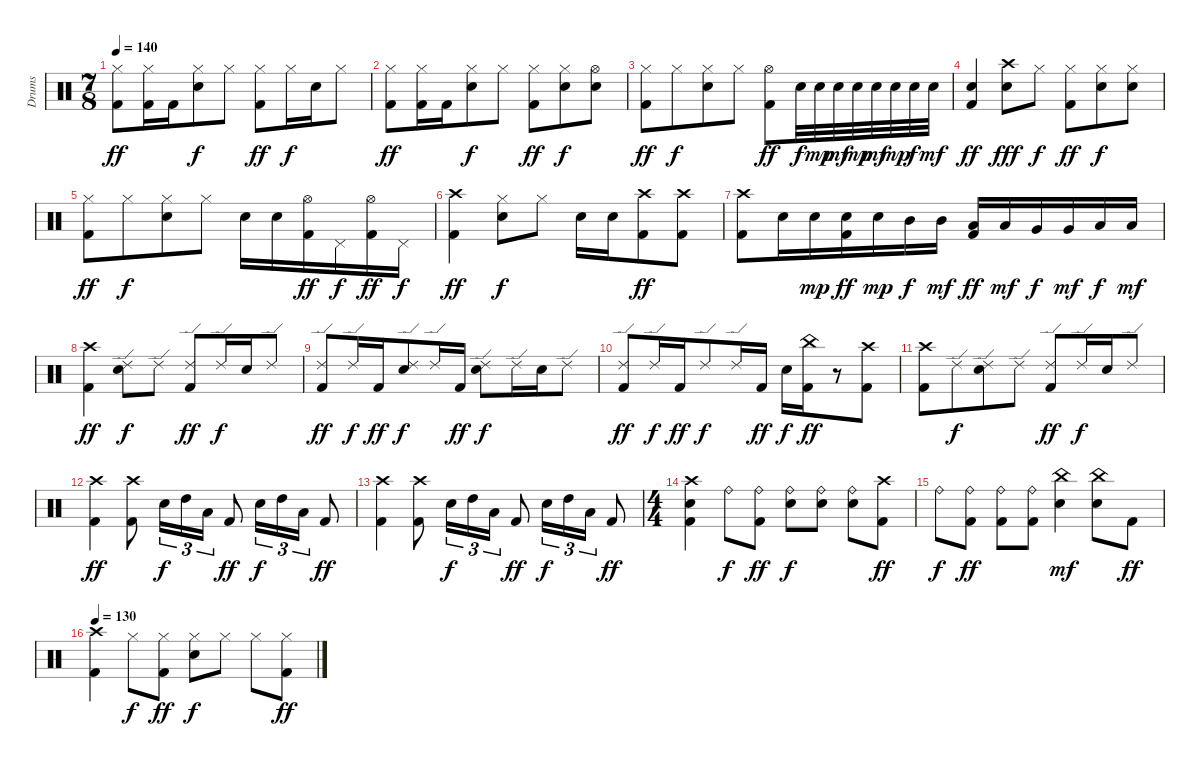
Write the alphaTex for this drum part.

\track ("Drums" "Drums") {instrument percussion}
\staff {score}
\articulation defaults
\ts (7 8)
\tempo 140
\clef neutral
\ks c
("Hi-Hat (closed)" "Kick (hit) 2").8{dy ff} ("Hi-Hat (closed)" "Kick (hit) 2").16 "Kick (hit) 2".16 ("Hi-Hat (closed)" "Snare (hit) 2").8{dy f} "Hi-Hat (closed)".8 ("Hi-Hat (closed)" "Kick (hit) 2").8{dy ff} "Hi-Hat (closed)".16{dy f} "Snare (hit) 2".16 "Hi-Hat (closed)".8 |
("Hi-Hat (closed)" "Kick (hit) 2").8{dy ff} ("Hi-Hat (closed)" "Kick (hit) 2").16 "Kick (hit) 2".16 ("Hi-Hat (closed)" "Snare (hit) 2").8{dy f} "Hi-Hat (closed)".8 ("Hi-Hat (closed)" "Kick (hit) 2").8{dy ff} ("Hi-Hat (closed)" "Snare (hit) 2").8{dy f} ("Hi-Hat (open)" "Snare (hit) 2").8 |
("Hi-Hat (closed)" "Kick (hit) 2").8{dy ff} "Hi-Hat (closed)".8{dy f} ("Hi-Hat (closed)" "Snare (hit) 2").8 "Hi-Hat (closed)".8 ("Hi-Hat (open)" "Kick (hit) 2").8{dy ff} "Snare (hit) 2".32{dy f} "Snare (hit) 2".32{dy mp} "Snare (hit) 2".32{dy mf} "Snare (hit) 2".32{dy mp} "Snare (hit) 2".32{dy mf} "Snare (hit) 2".32{dy mp} "Snare (hit) 2".32{dy f} "Snare (hit) 2".32{dy mf} |
("Snare (hit) 2" "Kick (hit) 2").4{dy ff} ("Crash high (hit)" "Snare (hit) 2").8{dy fff} "Hi-Hat (closed)".8{dy f} ("Hi-Hat (closed)" "Kick (hit) 2").8{dy ff} ("Hi-Hat (closed)" "Snare (hit) 2").8{dy f} ("Hi-Hat (closed)" "Snare (hit) 2").8 |
("Hi-Hat (closed)" "Kick (hit) 2").8{dy ff} "Hi-Hat (closed)".8{dy f} ("Hi-Hat (closed)" "Snare (hit) 2").8 "Hi-Hat (closed)".8 "Snare (hit) 2".16 "Snare (hit) 2".16 ("Hi-Hat (open)" "Kick (hit) 2").16{dy ff} "Pedal Hi-Hat (hit)".16{dy f} ("Hi-Hat (open)" "Kick (hit) 2").16{dy ff} "Pedal Hi-Hat (hit)".16{dy f} |
("Crash high (hit)" "Kick (hit) 2").4{dy ff} ("Hi-Hat (closed)" "Snare (hit) 2").8{dy f} "Hi-Hat (closed)".8 "Snare (hit) 2".16 "Snare (hit) 2".16 ("Crash high (hit)" "Kick (hit) 2").8{dy ff} ("Crash high (hit)" "Kick (hit) 2").8 |
("Crash high (hit)" "Kick (hit) 2").8 "Snare (hit) 2".16 "Snare (hit) 2".16{dy mp} ("Snare (hit) 2" "Kick (hit) 2").16{dy ff} "Snare (hit) 2".16{dy mp} "Mid Tom (hit)".16{dy f} "Mid Tom (hit)".16{dy mf} ("Low Tom (hit)" "Kick (hit) 2").16{dy ff} "Low Tom (hit)".16{dy mf} "Very Low Tom (hit)".16{dy f} "Very Low Tom (hit)".16{dy mf} "Low Floor Tom (hit)".16{dy f} "Low Floor Tom (hit)".16{dy mf} |
("Crash high (hit)" "Kick (hit) 2").4{dy ff} ("Ride (edge) 2" "Snare (hit) 2").8{dy f} "Ride (edge) 2".8 ("Ride (edge) 2" "Kick (hit) 2").8{dy ff} "Ride (edge) 2".16{dy f} "Snare (hit) 2".16 "Ride (edge) 2".8 |
("Ride (edge) 2" "Kick (hit) 2").8{dy ff} "Ride (edge) 2".16{dy f} "Kick (hit) 2".16{dy ff} ("Ride (edge) 2" "Snare (hit) 2").8{dy f} "Ride (edge) 2".16 "Kick (hit) 2".16{dy ff} ("Ride (edge) 2" "Snare (hit) 2").8{dy f} "Ride (edge) 2".16 "Snare (hit) 2".16 "Ride (edge) 2".8 |
("Ride (edge) 2" "Kick (hit) 2").8{dy ff} "Ride (edge) 2".16{dy f} "Kick (hit) 2".16{dy ff} "Ride (edge) 2".8{dy f} "Ride (edge) 2".16 "Kick (hit) 2".16{dy ff} "Snare (hit) 2".16{dy f} ("China (hit)" "Kick (hit) 2").16{dy ff} r.8 ("Crash high (hit)" "Kick (hit) 2").8 |
("Crash high (hit)" "Kick (hit) 2").8 "Ride (edge) 2".8{dy f} ("Ride (edge) 2" "Snare (hit) 2").8 "Ride (edge) 2".8 ("Ride (edge) 2" "Kick (hit) 2").8{dy ff} "Ride (edge) 2".16{dy f} "Snare (hit) 2".16 "Ride (edge) 2".8 |
("Crash high (hit)" "Kick (hit) 2").4{dy ff} ("Crash high (hit)" "Kick (hit) 2").8 "Snare (hit) 2".16{tu (3 2) dy f} "High Tom (hit)".16{tu (3 2)} "Low Floor Tom (hit)".16{tu (3 2)} "Kick (hit) 2".8{dy ff} "Snare (hit) 2".16{tu (3 2) dy f} "High Tom (hit)".16{tu (3 2)} "Low Floor Tom (hit)".16{tu (3 2)} "Kick (hit) 2".8{dy ff} |
("Crash high (hit)" "Kick (hit) 2").4 ("Crash high (hit)" "Kick (hit) 2").8 "Snare (hit) 2".16{tu (3 2) dy f} "High Tom (hit)".16{tu (3 2)} "Low Floor Tom (hit)".16{tu (3 2)} "Kick (hit) 2".8{dy ff} "Snare (hit) 2".16{tu (3 2) dy f} "High Tom (hit)".16{tu (3 2)} "Low Floor Tom (hit)".16{tu (3 2)} "Kick (hit) 2".8{dy ff} |
\ts (4 4)
("Crash high (hit)" "Snare (hit) 2" "Kick (hit) 2").4 "Ride (bell)".8{dy f} ("Ride (bell)" "Kick (hit) 2").8{dy ff} ("Ride (bell)" "Snare (hit) 2").8{dy f} ("Ride (bell)" "Snare (hit) 2").8 ("Ride (bell)" "Snare (hit) 2").8 ("Crash high (hit)" "Kick (hit) 2").8{dy ff} |
"Ride (bell)".8{dy f} ("Ride (bell)" "Kick (hit) 2").8{dy ff} ("Ride (bell)" "Kick (hit) 2").8 ("Ride (bell)" "Kick (hit) 2").8 ("China (hit)" "Snare (hit) 2").4{dy mf} ("China (hit)" "Snare (hit) 2").8 "Kick (hit) 2".8{dy ff} |
\tempo 130
("Crash high (hit)" "Kick (hit) 2").4 "Hi-Hat (closed)".8{dy f} ("Hi-Hat (closed)" "Kick (hit) 2").8{dy ff} ("Hi-Hat (closed)" "Snare (hit) 2").8{dy f} "Hi-Hat (closed)".8 "Hi-Hat (closed)".8 ("Hi-Hat (closed)" "Kick (hit) 2").8{dy ff}
